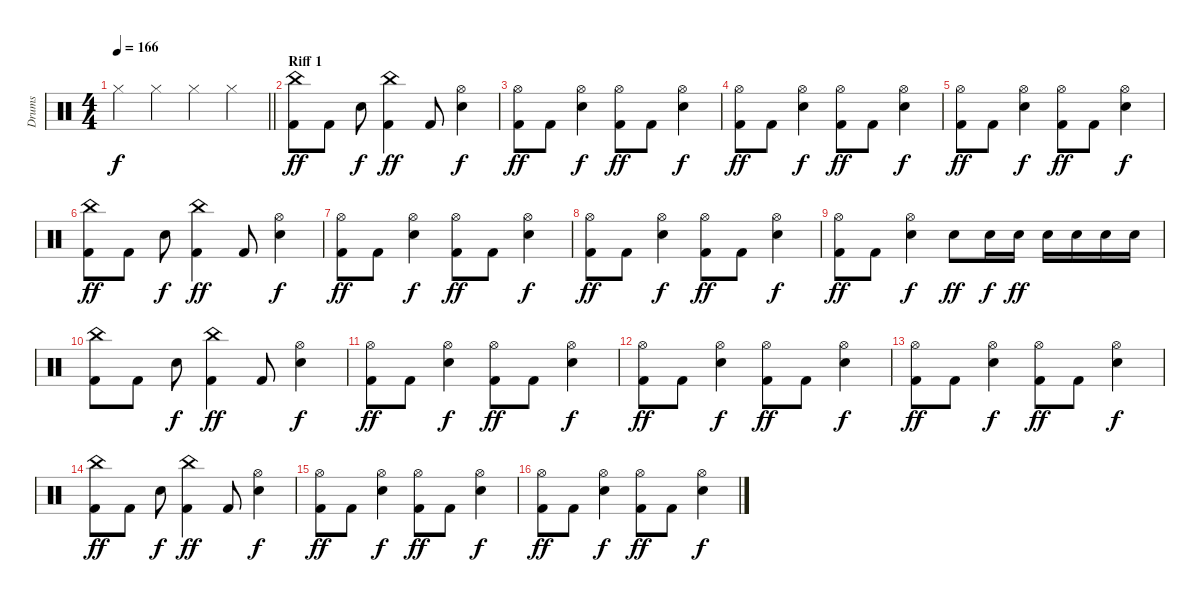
\track ("Drums" "Drums") {instrument percussion}
\staff {score}
\articulation defaults
\ts (4 4)
\tempo 166
\clef neutral
\barLineRight lightlight
\ks c "Hi-Hat (closed)".4{dy f} "Hi-Hat (closed)".4 "Hi-Hat (closed)".4 "Hi-Hat (closed)".4
|
\section ("" "Riff 1")
("China (hit)" "Kick (hit) 2").8{dy ff} "Kick (hit) 2".8 "Snare (hit) 2".8{dy f} ("China (hit)" "Kick (hit) 2").4{dy ff} "Kick (hit) 2".8 ("Hi-Hat (open)" "Snare (hit) 2").4{dy f} |
("Hi-Hat (open)" "Kick (hit) 2").8{dy ff} "Kick (hit) 2".8 ("Hi-Hat (open)" "Snare (hit) 2").4{dy f} ("Hi-Hat (open)" "Kick (hit) 2").8{dy ff} "Kick (hit) 2".8 ("Hi-Hat (open)" "Snare (hit) 2").4{dy f} |
("Hi-Hat (open)" "Kick (hit) 2").8{dy ff} "Kick (hit) 2".8 ("Hi-Hat (open)" "Snare (hit) 2").4{dy f} ("Hi-Hat (open)" "Kick (hit) 2").8{dy ff} "Kick (hit) 2".8 ("Hi-Hat (open)" "Snare (hit) 2").4{dy f} |
("Hi-Hat (open)" "Kick (hit) 2").8{dy ff} "Kick (hit) 2".8 ("Hi-Hat (open)" "Snare (hit) 2").4{dy f} ("Hi-Hat (open)" "Kick (hit) 2").8{dy ff} "Kick (hit) 2".8 ("Hi-Hat (open)" "Snare (hit) 2").4{dy f} |
("China (hit)" "Kick (hit) 2").8{dy ff} "Kick (hit) 2".8 "Snare (hit) 2".8{dy f} ("China (hit)" "Kick (hit) 2").4{dy ff} "Kick (hit) 2".8 ("Hi-Hat (open)" "Snare (hit) 2").4{dy f} |
("Hi-Hat (open)" "Kick (hit) 2").8{dy ff} "Kick (hit) 2".8 ("Hi-Hat (open)" "Snare (hit) 2").4{dy f} ("Hi-Hat (open)" "Kick (hit) 2").8{dy ff} "Kick (hit) 2".8 ("Hi-Hat (open)" "Snare (hit) 2").4{dy f} |
("Hi-Hat (open)" "Kick (hit) 2").8{dy ff} "Kick (hit) 2".8 ("Hi-Hat (open)" "Snare (hit) 2").4{dy f} ("Hi-Hat (open)" "Kick (hit) 2").8{dy ff} "Kick (hit) 2".8 ("Hi-Hat (open)" "Snare (hit) 2").4{dy f} |
("Hi-Hat (open)" "Kick (hit) 2").8{dy ff} "Kick (hit) 2".8 ("Hi-Hat (open)" "Snare (hit) 2").4{dy f} "Snare (hit) 2".8{dy ff} "Snare (hit) 2".16{dy f} "Snare (hit) 2".16{dy ff} "Snare (hit) 2".16 "Snare (hit) 2".16 "Snare (hit) 2".16 "Snare (hit) 2".16 |
("China (hit)" "Kick (hit) 2").8 "Kick (hit) 2".8 "Snare (hit) 2".8{dy f} ("China (hit)" "Kick (hit) 2").4{dy ff} "Kick (hit) 2".8 ("Hi-Hat (open)" "Snare (hit) 2").4{dy f} |
("Hi-Hat (open)" "Kick (hit) 2").8{dy ff} "Kick (hit) 2".8 ("Hi-Hat (open)" "Snare (hit) 2").4{dy f} ("Hi-Hat (open)" "Kick (hit) 2").8{dy ff} "Kick (hit) 2".8 ("Hi-Hat (open)" "Snare (hit) 2").4{dy f} |
("Hi-Hat (open)" "Kick (hit) 2").8{dy ff} "Kick (hit) 2".8 ("Hi-Hat (open)" "Snare (hit) 2").4{dy f} ("Hi-Hat (open)" "Kick (hit) 2").8{dy ff} "Kick (hit) 2".8 ("Hi-Hat (open)" "Snare (hit) 2").4{dy f} |
("Hi-Hat (open)" "Kick (hit) 2").8{dy ff} "Kick (hit) 2".8 ("Hi-Hat (open)" "Snare (hit) 2").4{dy f} ("Hi-Hat (open)" "Kick (hit) 2").8{dy ff} "Kick (hit) 2".8 ("Hi-Hat (open)" "Snare (hit) 2").4{dy f} |
("China (hit)" "Kick (hit) 2").8{dy ff} "Kick (hit) 2".8 "Snare (hit) 2".8{dy f} ("China (hit)" "Kick (hit) 2").4{dy ff} "Kick (hit) 2".8 ("Hi-Hat (open)" "Snare (hit) 2").4{dy f} |
("Hi-Hat (open)" "Kick (hit) 2").8{dy ff} "Kick (hit) 2".8 ("Hi-Hat (open)" "Snare (hit) 2").4{dy f} ("Hi-Hat (open)" "Kick (hit) 2").8{dy ff} "Kick (hit) 2".8 ("Hi-Hat (open)" "Snare (hit) 2").4{dy f} |
("Hi-Hat (open)" "Kick (hit) 2").8{dy ff} "Kick (hit) 2".8 ("Hi-Hat (open)" "Snare (hit) 2").4{dy f} ("Hi-Hat (open)" "Kick (hit) 2").8{dy ff} "Kick (hit) 2".8 ("Hi-Hat (open)" "Snare (hit) 2").4{dy f}
